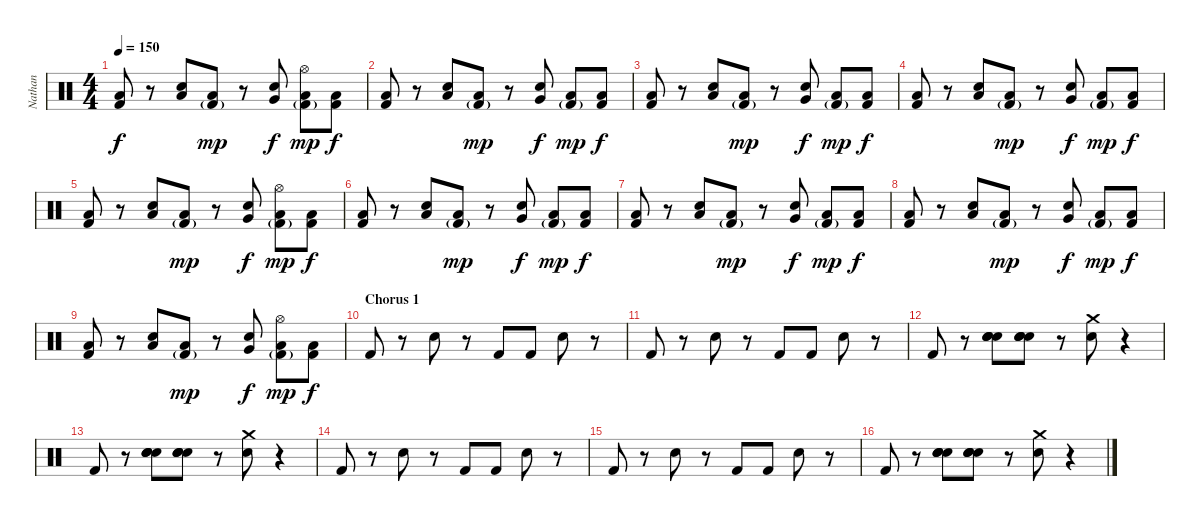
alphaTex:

\track ("Nathan" "Nathan") {instrument percussion}
\staff {score}
\articulation defaults
\ts (4 4)
\tempo 150
\clef neutral
\ks c
("Low Floor Tom (hit)" "Kick (hit) 2").8{dy f} r.8 ("Electric Snare (hit)" "Low Tom (hit)").8 ("Low Floor Tom (hit)" "Kick (hit) 2"{g}).8{dy mp} r.8 ("Electric Snare (hit)" "Very Low Tom (hit)").8{dy f} ("Hi-Hat (open)" "Low Floor Tom (hit)" "Kick (hit) 2"{g}).8{dy mp} ("Low Floor Tom (hit)" "Kick (hit) 2").8{dy f} |
("Low Floor Tom (hit)" "Kick (hit) 2").8 r.8 ("Electric Snare (hit)" "Low Tom (hit)").8 ("Low Floor Tom (hit)" "Kick (hit) 2"{g}).8{dy mp} r.8 ("Electric Snare (hit)" "Very Low Tom (hit)").8{dy f} ("Low Floor Tom (hit)" "Kick (hit) 2"{g}).8{dy mp} ("Low Floor Tom (hit)" "Kick (hit) 2").8{dy f} |
("Low Floor Tom (hit)" "Kick (hit) 2").8 r.8 ("Electric Snare (hit)" "Low Tom (hit)").8 ("Low Floor Tom (hit)" "Kick (hit) 2"{g}).8{dy mp} r.8 ("Electric Snare (hit)" "Very Low Tom (hit)").8{dy f} ("Low Floor Tom (hit)" "Kick (hit) 2"{g}).8{dy mp} ("Low Floor Tom (hit)" "Kick (hit) 2").8{dy f} |
("Low Floor Tom (hit)" "Kick (hit) 2").8 r.8 ("Electric Snare (hit)" "Low Tom (hit)").8 ("Low Floor Tom (hit)" "Kick (hit) 2"{g}).8{dy mp} r.8 ("Electric Snare (hit)" "Very Low Tom (hit)").8{dy f} ("Low Floor Tom (hit)" "Kick (hit) 2"{g}).8{dy mp} ("Low Floor Tom (hit)" "Kick (hit) 2").8{dy f} |
("Low Floor Tom (hit)" "Kick (hit) 2").8 r.8 ("Electric Snare (hit)" "Low Tom (hit)").8 ("Low Floor Tom (hit)" "Kick (hit) 2"{g}).8{dy mp} r.8 ("Electric Snare (hit)" "Very Low Tom (hit)").8{dy f} ("Hi-Hat (open)" "Low Floor Tom (hit)" "Kick (hit) 2"{g}).8{dy mp} ("Low Floor Tom (hit)" "Kick (hit) 2").8{dy f} |
("Low Floor Tom (hit)" "Kick (hit) 2").8 r.8 ("Electric Snare (hit)" "Low Tom (hit)").8 ("Low Floor Tom (hit)" "Kick (hit) 2"{g}).8{dy mp} r.8 ("Electric Snare (hit)" "Very Low Tom (hit)").8{dy f} ("Low Floor Tom (hit)" "Kick (hit) 2"{g}).8{dy mp} ("Low Floor Tom (hit)" "Kick (hit) 2").8{dy f} |
("Low Floor Tom (hit)" "Kick (hit) 2").8 r.8 ("Electric Snare (hit)" "Low Tom (hit)").8 ("Low Floor Tom (hit)" "Kick (hit) 2"{g}).8{dy mp} r.8 ("Electric Snare (hit)" "Very Low Tom (hit)").8{dy f} ("Low Floor Tom (hit)" "Kick (hit) 2"{g}).8{dy mp} ("Low Floor Tom (hit)" "Kick (hit) 2").8{dy f} |
("Low Floor Tom (hit)" "Kick (hit) 2").8 r.8 ("Electric Snare (hit)" "Low Tom (hit)").8 ("Low Floor Tom (hit)" "Kick (hit) 2"{g}).8{dy mp} r.8 ("Electric Snare (hit)" "Very Low Tom (hit)").8{dy f} ("Low Floor Tom (hit)" "Kick (hit) 2"{g}).8{dy mp} ("Low Floor Tom (hit)" "Kick (hit) 2").8{dy f} |
("Low Floor Tom (hit)" "Kick (hit) 2").8 r.8 ("Electric Snare (hit)" "Low Tom (hit)").8 ("Low Floor Tom (hit)" "Kick (hit) 2"{g}).8{dy mp} r.8 ("Electric Snare (hit)" "Very Low Tom (hit)").8{dy f} ("Hi-Hat (open)" "Low Floor Tom (hit)" "Kick (hit) 2"{g}).8{dy mp} ("Low Floor Tom (hit)" "Kick (hit) 2").8{dy f} |
\section ("" "Chorus 1")
"Kick (hit) 2".8 r.8 "Electric Snare (hit)".8 r.8 "Kick (hit) 2".8 "Kick (hit) 2".8 "Electric Snare (hit)".8 r.8 |
"Kick (hit) 2".8 r.8 "Electric Snare (hit)".8 r.8 "Kick (hit) 2".8 "Kick (hit) 2".8 "Electric Snare (hit)".8 r.8 |
"Kick (hit) 2".8 r.8 ("Hand Clap (hit)" "Hand Clap (hit)" "Hand Clap (hit)" "Hand Clap (hit)").8 ("Hand Clap (hit)" "Hand Clap (hit)" "Hand Clap (hit)" "Hand Clap (hit)").8 r.8 ("Crash medium (hit)" "Electric Snare (hit)").8 r.4 |
"Kick (hit) 2".8 r.8 ("Hand Clap (hit)" "Hand Clap (hit)" "Hand Clap (hit)" "Hand Clap (hit)").8 ("Hand Clap (hit)" "Hand Clap (hit)" "Hand Clap (hit)" "Hand Clap (hit)").8 r.8 ("Crash medium (hit)" "Electric Snare (hit)").8 r.4 |
"Kick (hit) 2".8 r.8 "Electric Snare (hit)".8 r.8 "Kick (hit) 2".8 "Kick (hit) 2".8 "Electric Snare (hit)".8 r.8 |
"Kick (hit) 2".8 r.8 "Electric Snare (hit)".8 r.8 "Kick (hit) 2".8 "Kick (hit) 2".8 "Electric Snare (hit)".8 r.8 |
"Kick (hit) 2".8 r.8 ("Hand Clap (hit)" "Hand Clap (hit)" "Hand Clap (hit)" "Hand Clap (hit)").8 ("Hand Clap (hit)" "Hand Clap (hit)" "Hand Clap (hit)" "Hand Clap (hit)").8 r.8 ("Crash medium (hit)" "Electric Snare (hit)").8 r.4
